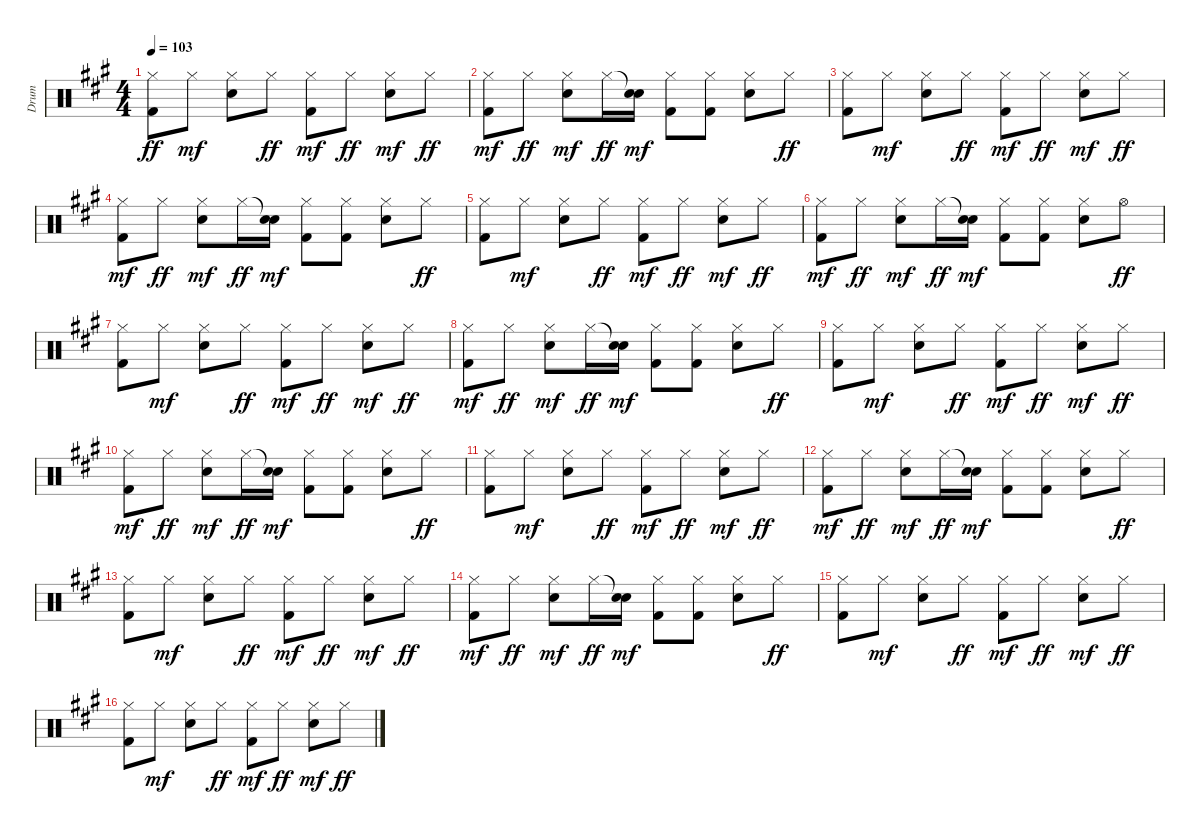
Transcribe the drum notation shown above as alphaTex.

\track ("Drum" "Drum") {instrument percussion}
\staff {score}
\articulation defaults
\ts (4 4)
\tempo 103
\clef neutral
\ks a
("Hi-Hat (closed)" "Kick (hit) 2").8{dy ff} "Hi-Hat (closed)".8{dy mf} ("Hi-Hat (closed)" "Electric Snare (hit)").8 "Hi-Hat (closed)".8{dy ff} ("Hi-Hat (closed)" "Kick (hit) 2").8{dy mf} "Hi-Hat (closed)".8{dy ff} ("Hi-Hat (closed)" "Electric Snare (hit)").8{dy mf} "Hi-Hat (closed)".8{dy ff} |
("Hi-Hat (closed)" "Kick (hit) 2").8{dy mf} "Hi-Hat (closed)".8{dy ff} ("Hi-Hat (closed)" "Electric Snare (hit)").8{dy mf} "Hi-Hat (closed)".16{dy ff} ("Snare (hit)"{t} "Electric Snare (hit)").16{dy mf} ("Hi-Hat (closed)" "Kick (hit) 2").8 ("Hi-Hat (closed)" "Kick (hit) 2").8 ("Hi-Hat (closed)" "Electric Snare (hit)").8 "Hi-Hat (closed)".8{dy ff} |
("Hi-Hat (closed)" "Kick (hit) 2").8 "Hi-Hat (closed)".8{dy mf} ("Hi-Hat (closed)" "Electric Snare (hit)").8 "Hi-Hat (closed)".8{dy ff} ("Hi-Hat (closed)" "Kick (hit) 2").8{dy mf} "Hi-Hat (closed)".8{dy ff} ("Hi-Hat (closed)" "Electric Snare (hit)").8{dy mf} "Hi-Hat (closed)".8{dy ff} |
("Hi-Hat (closed)" "Kick (hit) 2").8{dy mf} "Hi-Hat (closed)".8{dy ff} ("Hi-Hat (closed)" "Electric Snare (hit)").8{dy mf} "Hi-Hat (closed)".16{dy ff} ("Snare (hit)"{t} "Electric Snare (hit)").16{dy mf} ("Hi-Hat (closed)" "Kick (hit) 2").8 ("Hi-Hat (closed)" "Kick (hit) 2").8 ("Hi-Hat (closed)" "Electric Snare (hit)").8 "Hi-Hat (closed)".8{dy ff} |
("Hi-Hat (closed)" "Kick (hit) 2").8 "Hi-Hat (closed)".8{dy mf} ("Hi-Hat (closed)" "Electric Snare (hit)").8 "Hi-Hat (closed)".8{dy ff} ("Hi-Hat (closed)" "Kick (hit) 2").8{dy mf} "Hi-Hat (closed)".8{dy ff} ("Hi-Hat (closed)" "Electric Snare (hit)").8{dy mf} "Hi-Hat (closed)".8{dy ff} |
("Hi-Hat (closed)" "Kick (hit) 2").8{dy mf} "Hi-Hat (closed)".8{dy ff} ("Hi-Hat (closed)" "Electric Snare (hit)").8{dy mf} "Hi-Hat (closed)".16{dy ff} ("Snare (hit)"{t} "Electric Snare (hit)").16{dy mf} ("Hi-Hat (closed)" "Kick (hit) 2").8 ("Hi-Hat (closed)" "Kick (hit) 2").8 ("Hi-Hat (closed)" "Electric Snare (hit)").8 "Hi-Hat (open)".8{dy ff} |
("Hi-Hat (closed)" "Kick (hit) 2").8 "Hi-Hat (closed)".8{dy mf} ("Hi-Hat (closed)" "Electric Snare (hit)").8 "Hi-Hat (closed)".8{dy ff} ("Hi-Hat (closed)" "Kick (hit) 2").8{dy mf} "Hi-Hat (closed)".8{dy ff} ("Hi-Hat (closed)" "Electric Snare (hit)").8{dy mf} "Hi-Hat (closed)".8{dy ff} |
("Hi-Hat (closed)" "Kick (hit) 2").8{dy mf} "Hi-Hat (closed)".8{dy ff} ("Hi-Hat (closed)" "Electric Snare (hit)").8{dy mf} "Hi-Hat (closed)".16{dy ff} ("Snare (hit)"{t} "Electric Snare (hit)").16{dy mf} ("Hi-Hat (closed)" "Kick (hit) 2").8 ("Hi-Hat (closed)" "Kick (hit) 2").8 ("Hi-Hat (closed)" "Electric Snare (hit)").8 "Hi-Hat (closed)".8{dy ff} |
("Hi-Hat (closed)" "Kick (hit) 2").8 "Hi-Hat (closed)".8{dy mf} ("Hi-Hat (closed)" "Electric Snare (hit)").8 "Hi-Hat (closed)".8{dy ff} ("Hi-Hat (closed)" "Kick (hit) 2").8{dy mf} "Hi-Hat (closed)".8{dy ff} ("Hi-Hat (closed)" "Electric Snare (hit)").8{dy mf} "Hi-Hat (closed)".8{dy ff} |
("Hi-Hat (closed)" "Kick (hit) 2").8{dy mf} "Hi-Hat (closed)".8{dy ff} ("Hi-Hat (closed)" "Electric Snare (hit)").8{dy mf} "Hi-Hat (closed)".16{dy ff} ("Snare (hit)"{t} "Electric Snare (hit)").16{dy mf} ("Hi-Hat (closed)" "Kick (hit) 2").8 ("Hi-Hat (closed)" "Kick (hit) 2").8 ("Hi-Hat (closed)" "Electric Snare (hit)").8 "Hi-Hat (closed)".8{dy ff} |
("Hi-Hat (closed)" "Kick (hit) 2").8 "Hi-Hat (closed)".8{dy mf} ("Hi-Hat (closed)" "Electric Snare (hit)").8 "Hi-Hat (closed)".8{dy ff} ("Hi-Hat (closed)" "Kick (hit) 2").8{dy mf} "Hi-Hat (closed)".8{dy ff} ("Hi-Hat (closed)" "Electric Snare (hit)").8{dy mf} "Hi-Hat (closed)".8{dy ff} |
("Hi-Hat (closed)" "Kick (hit) 2").8{dy mf} "Hi-Hat (closed)".8{dy ff} ("Hi-Hat (closed)" "Electric Snare (hit)").8{dy mf} "Hi-Hat (closed)".16{dy ff} ("Snare (hit)"{t} "Electric Snare (hit)").16{dy mf} ("Hi-Hat (closed)" "Kick (hit) 2").8 ("Hi-Hat (closed)" "Kick (hit) 2").8 ("Hi-Hat (closed)" "Electric Snare (hit)").8 "Hi-Hat (closed)".8{dy ff} |
("Hi-Hat (closed)" "Kick (hit) 2").8 "Hi-Hat (closed)".8{dy mf} ("Hi-Hat (closed)" "Electric Snare (hit)").8 "Hi-Hat (closed)".8{dy ff} ("Hi-Hat (closed)" "Kick (hit) 2").8{dy mf} "Hi-Hat (closed)".8{dy ff} ("Hi-Hat (closed)" "Electric Snare (hit)").8{dy mf} "Hi-Hat (closed)".8{dy ff} |
("Hi-Hat (closed)" "Kick (hit) 2").8{dy mf} "Hi-Hat (closed)".8{dy ff} ("Hi-Hat (closed)" "Electric Snare (hit)").8{dy mf} "Hi-Hat (closed)".16{dy ff} ("Snare (hit)"{t} "Electric Snare (hit)").16{dy mf} ("Hi-Hat (closed)" "Kick (hit) 2").8 ("Hi-Hat (closed)" "Kick (hit) 2").8 ("Hi-Hat (closed)" "Electric Snare (hit)").8 "Hi-Hat (closed)".8{dy ff} |
("Hi-Hat (closed)" "Kick (hit) 2").8 "Hi-Hat (closed)".8{dy mf} ("Hi-Hat (closed)" "Electric Snare (hit)").8 "Hi-Hat (closed)".8{dy ff} ("Hi-Hat (closed)" "Kick (hit) 2").8{dy mf} "Hi-Hat (closed)".8{dy ff} ("Hi-Hat (closed)" "Electric Snare (hit)").8{dy mf} "Hi-Hat (closed)".8{dy ff} |
("Hi-Hat (closed)" "Kick (hit) 2").8 "Hi-Hat (closed)".8{dy mf} ("Hi-Hat (closed)" "Electric Snare (hit)").8 "Hi-Hat (closed)".8{dy ff} ("Hi-Hat (closed)" "Kick (hit) 2").8{dy mf} "Hi-Hat (closed)".8{dy ff} ("Hi-Hat (closed)" "Electric Snare (hit)").8{dy mf} "Hi-Hat (closed)".8{dy ff}
